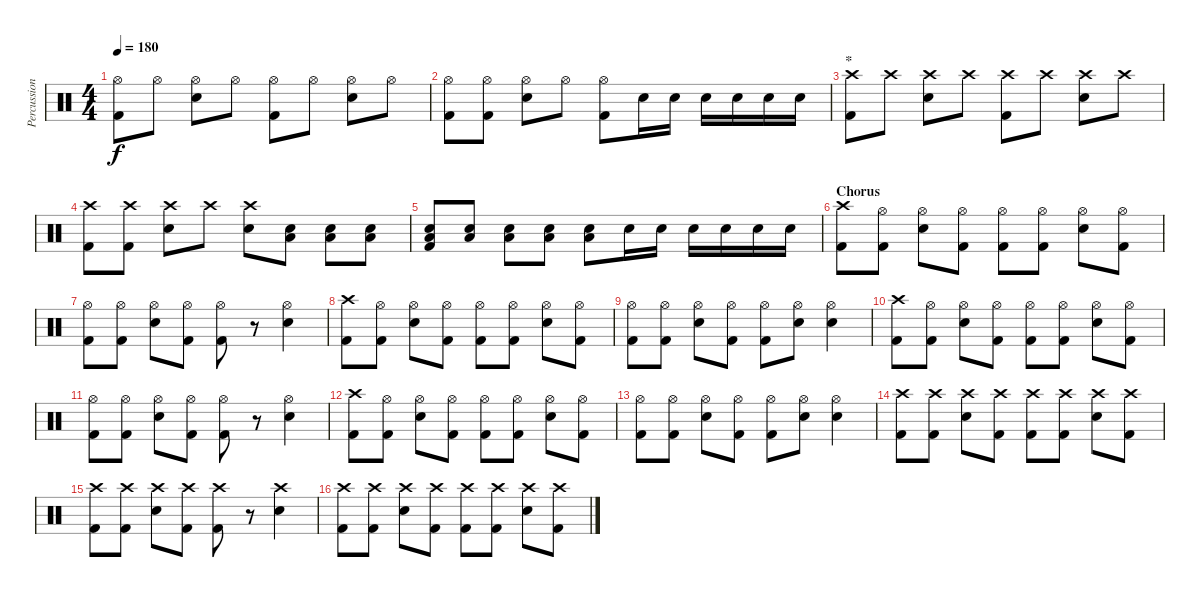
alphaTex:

\track ("Percussion" "Percussion") {instrument percussion}
\staff {score}
\articulation defaults
\ts (4 4)
\tempo 180
\clef neutral
\ks c
("Hi-Hat (open)" "Kick (hit) 2").8{dy f} "Hi-Hat (open)".8 ("Hi-Hat (open)" "Snare (hit) 2").8 "Hi-Hat (open)".8 ("Hi-Hat (open)" "Kick (hit) 2").8 "Hi-Hat (open)".8 ("Hi-Hat (open)" "Snare (hit) 2").8 "Hi-Hat (open)".8 |
("Hi-Hat (open)" "Kick (hit) 2").8 ("Hi-Hat (open)" "Kick (hit) 2").8 ("Hi-Hat (open)" "Snare (hit) 2").8 "Hi-Hat (open)".8 ("Hi-Hat (open)" "Kick (hit) 2").8 "Snare (hit) 2".16 "Snare (hit) 2".16 "Snare (hit) 2".16 "Snare (hit) 2".16 "Snare (hit) 2".16 "Snare (hit) 2".16 |
\section ("" "*")
("Crash high (hit)" "Kick (hit) 2").8 "Crash high (hit)".8 ("Crash high (hit)" "Snare (hit) 2").8 "Crash high (hit)".8 ("Crash high (hit)" "Kick (hit) 2").8 "Crash high (hit)".8 ("Crash high (hit)" "Snare (hit) 2").8 "Crash high (hit)".8 |
("Crash high (hit)" "Kick (hit) 2").8 ("Crash high (hit)" "Kick (hit) 2").8 ("Crash high (hit)" "Snare (hit) 2").8 "Crash high (hit)".8 ("Crash high (hit)" "Snare (hit) 2").8 ("Low Floor Tom (hit)" "Snare (hit) 2").8 ("Low Floor Tom (hit)" "Snare (hit) 2").8 ("Low Floor Tom (hit)" "Snare (hit) 2").8 |
("Low Floor Tom (hit)" "Snare (hit) 2" "Kick (hit) 2").8 ("Low Floor Tom (hit)" "Snare (hit) 2").8 ("Low Floor Tom (hit)" "Snare (hit) 2").8 ("Low Floor Tom (hit)" "Snare (hit) 2").8 ("Low Floor Tom (hit)" "Snare (hit) 2").8 "Snare (hit) 2".16 "Snare (hit) 2".16 "Snare (hit) 2".16 "Snare (hit) 2".16 "Snare (hit) 2".16 "Snare (hit) 2".16 |
\section ("" "Chorus")
("Crash high (hit)" "Kick (hit) 2").8 ("Hi-Hat (open)" "Kick (hit) 2").8 ("Hi-Hat (open)" "Snare (hit) 2").8 ("Hi-Hat (open)" "Kick (hit) 2").8 ("Hi-Hat (open)" "Kick (hit) 2").8 ("Hi-Hat (open)" "Kick (hit) 2").8 ("Hi-Hat (open)" "Snare (hit) 2").8 ("Hi-Hat (open)" "Kick (hit) 2").8 |
("Hi-Hat (open)" "Kick (hit) 2").8 ("Hi-Hat (open)" "Kick (hit) 2").8 ("Hi-Hat (open)" "Snare (hit) 2").8 ("Hi-Hat (open)" "Kick (hit) 2").8 ("Hi-Hat (open)" "Kick (hit) 2").8 r.8 ("Hi-Hat (open)" "Snare (hit) 2").4 |
("Crash high (hit)" "Kick (hit) 2").8 ("Hi-Hat (open)" "Kick (hit) 2").8 ("Hi-Hat (open)" "Snare (hit) 2").8 ("Hi-Hat (open)" "Kick (hit) 2").8 ("Hi-Hat (open)" "Kick (hit) 2").8 ("Hi-Hat (open)" "Kick (hit) 2").8 ("Hi-Hat (open)" "Snare (hit) 2").8 ("Hi-Hat (open)" "Kick (hit) 2").8 |
("Hi-Hat (open)" "Kick (hit) 2").8 ("Hi-Hat (open)" "Kick (hit) 2").8 ("Hi-Hat (open)" "Snare (hit) 2").8 ("Hi-Hat (open)" "Kick (hit) 2").8 ("Hi-Hat (open)" "Kick (hit) 2").8 ("Hi-Hat (open)" "Snare (hit) 2").8 ("Hi-Hat (open)" "Snare (hit) 2").4 |
("Crash high (hit)" "Kick (hit) 2").8 ("Hi-Hat (open)" "Kick (hit) 2").8 ("Hi-Hat (open)" "Snare (hit) 2").8 ("Hi-Hat (open)" "Kick (hit) 2").8 ("Hi-Hat (open)" "Kick (hit) 2").8 ("Hi-Hat (open)" "Kick (hit) 2").8 ("Hi-Hat (open)" "Snare (hit) 2").8 ("Hi-Hat (open)" "Kick (hit) 2").8 |
("Hi-Hat (open)" "Kick (hit) 2").8 ("Hi-Hat (open)" "Kick (hit) 2").8 ("Hi-Hat (open)" "Snare (hit) 2").8 ("Hi-Hat (open)" "Kick (hit) 2").8 ("Hi-Hat (open)" "Kick (hit) 2").8 r.8 ("Hi-Hat (open)" "Snare (hit) 2").4 |
("Crash high (hit)" "Kick (hit) 2").8 ("Hi-Hat (open)" "Kick (hit) 2").8 ("Hi-Hat (open)" "Snare (hit) 2").8 ("Hi-Hat (open)" "Kick (hit) 2").8 ("Hi-Hat (open)" "Kick (hit) 2").8 ("Hi-Hat (open)" "Kick (hit) 2").8 ("Hi-Hat (open)" "Snare (hit) 2").8 ("Hi-Hat (open)" "Kick (hit) 2").8 |
("Hi-Hat (open)" "Kick (hit) 2").8 ("Hi-Hat (open)" "Kick (hit) 2").8 ("Hi-Hat (open)" "Snare (hit) 2").8 ("Hi-Hat (open)" "Kick (hit) 2").8 ("Hi-Hat (open)" "Kick (hit) 2").8 ("Hi-Hat (open)" "Snare (hit) 2").8 ("Hi-Hat (open)" "Snare (hit) 2").4 |
("Crash high (hit)" "Kick (hit) 2").8 ("Crash high (hit)" "Kick (hit) 2").8 ("Crash high (hit)" "Snare (hit) 2").8 ("Crash high (hit)" "Kick (hit) 2").8 ("Crash high (hit)" "Kick (hit) 2").8 ("Crash high (hit)" "Kick (hit) 2").8 ("Crash high (hit)" "Snare (hit) 2").8 ("Crash high (hit)" "Kick (hit) 2").8 |
("Crash high (hit)" "Kick (hit) 2").8 ("Crash high (hit)" "Kick (hit) 2").8 ("Crash high (hit)" "Snare (hit) 2").8 ("Crash high (hit)" "Kick (hit) 2").8 ("Crash high (hit)" "Kick (hit) 2").8 r.8 ("Crash high (hit)" "Snare (hit) 2").4 |
("Crash high (hit)" "Kick (hit) 2").8 ("Crash high (hit)" "Kick (hit) 2").8 ("Crash high (hit)" "Snare (hit) 2").8 ("Crash high (hit)" "Kick (hit) 2").8 ("Crash high (hit)" "Kick (hit) 2").8 ("Crash high (hit)" "Kick (hit) 2").8 ("Crash high (hit)" "Snare (hit) 2").8 ("Crash high (hit)" "Kick (hit) 2").8
